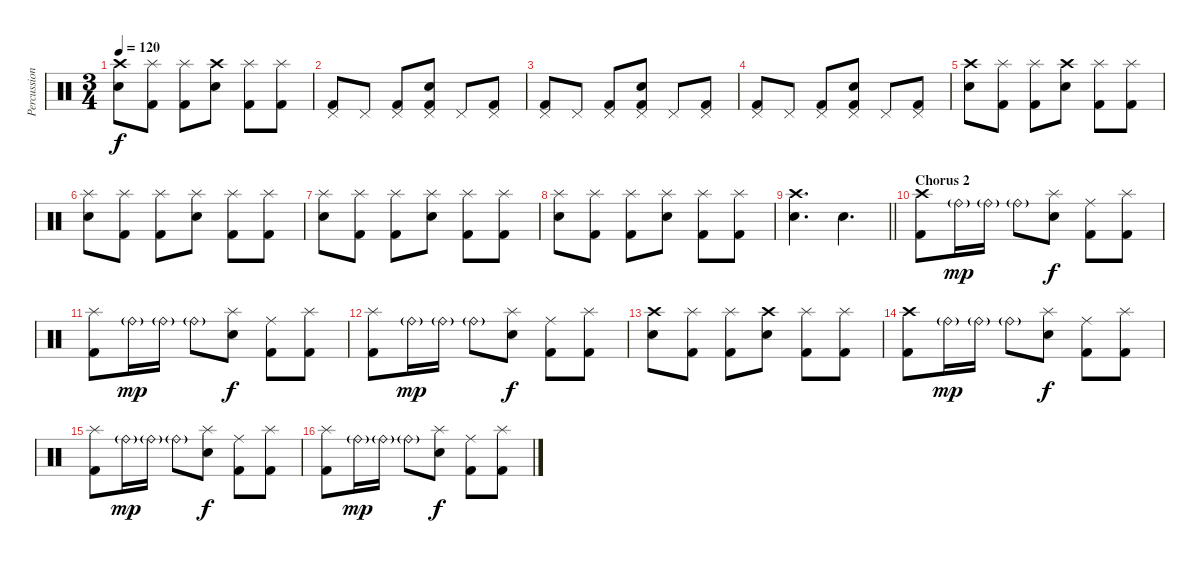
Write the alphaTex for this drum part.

\track ("Percussion" "Percussion") {instrument percussion}
\staff {score}
\articulation defaults
\ts (3 4)
\tempo 120
\clef neutral
\ks c
("Crash high (hit)" "Electric Snare (hit)").8{dy f} ("Splash (hit)" "Kick (hit) 2").8 ("Splash (hit)" "Kick (hit) 2").8 ("Crash high (hit)" "Electric Snare (hit)").8 ("Splash (hit)" "Kick (hit) 2").8 ("Splash (hit)" "Kick (hit) 2").8 |
("Pedal Hi-Hat (hit)" "Kick (hit) 2").8 "Pedal Hi-Hat (hit)".8 ("Pedal Hi-Hat (hit)" "Kick (hit) 2").8 ("Pedal Hi-Hat (hit)" "Electric Snare (hit)" "Kick (hit) 2").8 "Pedal Hi-Hat (hit)".8 ("Pedal Hi-Hat (hit)" "Kick (hit) 2").8 |
("Pedal Hi-Hat (hit)" "Kick (hit) 2").8 "Pedal Hi-Hat (hit)".8 ("Pedal Hi-Hat (hit)" "Kick (hit) 2").8 ("Pedal Hi-Hat (hit)" "Electric Snare (hit)" "Kick (hit) 2").8 "Pedal Hi-Hat (hit)".8 ("Pedal Hi-Hat (hit)" "Kick (hit) 2").8 |
("Pedal Hi-Hat (hit)" "Kick (hit) 2").8 "Pedal Hi-Hat (hit)".8 ("Pedal Hi-Hat (hit)" "Kick (hit) 2").8 ("Pedal Hi-Hat (hit)" "Electric Snare (hit)" "Kick (hit) 2").8 "Pedal Hi-Hat (hit)".8 ("Pedal Hi-Hat (hit)" "Kick (hit) 2").8 |
("Crash high (hit)" "Electric Snare (hit)").8 ("Splash (hit)" "Kick (hit) 2").8 ("Splash (hit)" "Kick (hit) 2").8 ("Crash high (hit)" "Electric Snare (hit)").8 ("Splash (hit)" "Kick (hit) 2").8 ("Splash (hit)" "Kick (hit) 2").8 |
("Splash (hit)" "Electric Snare (hit)").8 ("Splash (hit)" "Kick (hit) 2").8 ("Splash (hit)" "Kick (hit) 2").8 ("Splash (hit)" "Electric Snare (hit)").8 ("Splash (hit)" "Kick (hit) 2").8 ("Splash (hit)" "Kick (hit) 2").8 |
("Splash (hit)" "Electric Snare (hit)").8 ("Splash (hit)" "Kick (hit) 2").8 ("Splash (hit)" "Kick (hit) 2").8 ("Splash (hit)" "Electric Snare (hit)").8 ("Splash (hit)" "Kick (hit) 2").8 ("Splash (hit)" "Kick (hit) 2").8 |
("Splash (hit)" "Electric Snare (hit)").8 ("Splash (hit)" "Kick (hit) 2").8 ("Splash (hit)" "Kick (hit) 2").8 ("Splash (hit)" "Electric Snare (hit)").8 ("Splash (hit)" "Kick (hit) 2").8 ("Splash (hit)" "Kick (hit) 2").8 |
\barLineRight lightlight
("Crash high (hit)" "Electric Snare (hit)").4{d} "Electric Snare (hit)".4{d} |
\section ("" "Chorus 2")
("Crash high (hit)" "Kick (hit) 2").8 "Ride (bell)"{g}.16{dy mp} "Ride (bell)"{g}.16 "Ride (bell)"{g}.8 ("Splash (hit)" "Electric Snare (hit)").8{dy f} ("Ride (middle)" "Kick (hit) 2").8 ("Splash (hit)" "Kick (hit) 2").8 |
("Splash (hit)" "Kick (hit) 2").8 "Ride (bell)"{g}.16{dy mp} "Ride (bell)"{g}.16 "Ride (bell)"{g}.8 ("Splash (hit)" "Electric Snare (hit)").8{dy f} ("Ride (middle)" "Kick (hit) 2").8 ("Splash (hit)" "Kick (hit) 2").8 |
("Splash (hit)" "Kick (hit) 2").8 "Ride (bell)"{g}.16{dy mp} "Ride (bell)"{g}.16 "Ride (bell)"{g}.8 ("Splash (hit)" "Electric Snare (hit)").8{dy f} ("Ride (middle)" "Kick (hit) 2").8 ("Splash (hit)" "Kick (hit) 2").8 |
("Crash high (hit)" "Electric Snare (hit)").8 ("Splash (hit)" "Kick (hit) 2").8 ("Splash (hit)" "Kick (hit) 2").8 ("Crash high (hit)" "Electric Snare (hit)").8 ("Splash (hit)" "Kick (hit) 2").8 ("Splash (hit)" "Kick (hit) 2").8 |
("Crash high (hit)" "Kick (hit) 2").8 "Ride (bell)"{g}.16{dy mp} "Ride (bell)"{g}.16 "Ride (bell)"{g}.8 ("Splash (hit)" "Electric Snare (hit)").8{dy f} ("Ride (middle)" "Kick (hit) 2").8 ("Splash (hit)" "Kick (hit) 2").8 |
("Splash (hit)" "Kick (hit) 2").8 "Ride (bell)"{g}.16{dy mp} "Ride (bell)"{g}.16 "Ride (bell)"{g}.8 ("Splash (hit)" "Electric Snare (hit)").8{dy f} ("Ride (middle)" "Kick (hit) 2").8 ("Splash (hit)" "Kick (hit) 2").8 |
("Splash (hit)" "Kick (hit) 2").8 "Ride (bell)"{g}.16{dy mp} "Ride (bell)"{g}.16 "Ride (bell)"{g}.8 ("Splash (hit)" "Electric Snare (hit)").8{dy f} ("Ride (middle)" "Kick (hit) 2").8 ("Splash (hit)" "Kick (hit) 2").8
